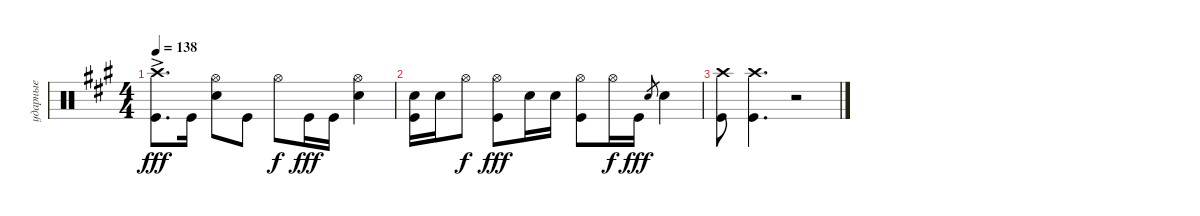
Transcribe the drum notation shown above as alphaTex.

\track ("ударные" "ударные") {instrument percussion}
\staff {score}
\articulation defaults
\ts (4 4)
\tempo 138
\clef neutral
\ks f#minor
("Kick (hit)" "Crash high (hit)"{ac}).8{d dy fff} "Kick (hit)".16 ("Snare (hit) 2" "Hi-Hat (open)").8 "Kick (hit)".8 "Hi-Hat (open)".8{dy f} "Kick (hit)".16{dy fff} "Kick (hit)".16 ("Snare (hit) 2" "Hi-Hat (open)").4 |
("Snare (hit) 2" "Kick (hit)").16 "Snare (hit) 2".16 "Hi-Hat (open)".8{dy f} ("Kick (hit)" "Hi-Hat (open)").8{dy fff} "Snare (hit) 2".16 "Snare (hit) 2".16 ("Kick (hit)" "Hi-Hat (open)").8 "Hi-Hat (open)".16{dy f} "Kick (hit)".16{dy fff} "Snare (hit) 2".8{gr} "Snare (hit) 2".4 |
("Kick (hit)" "Crash high (hit)").8 ("Kick (hit)" "Crash high (hit)").4{d} r.2
